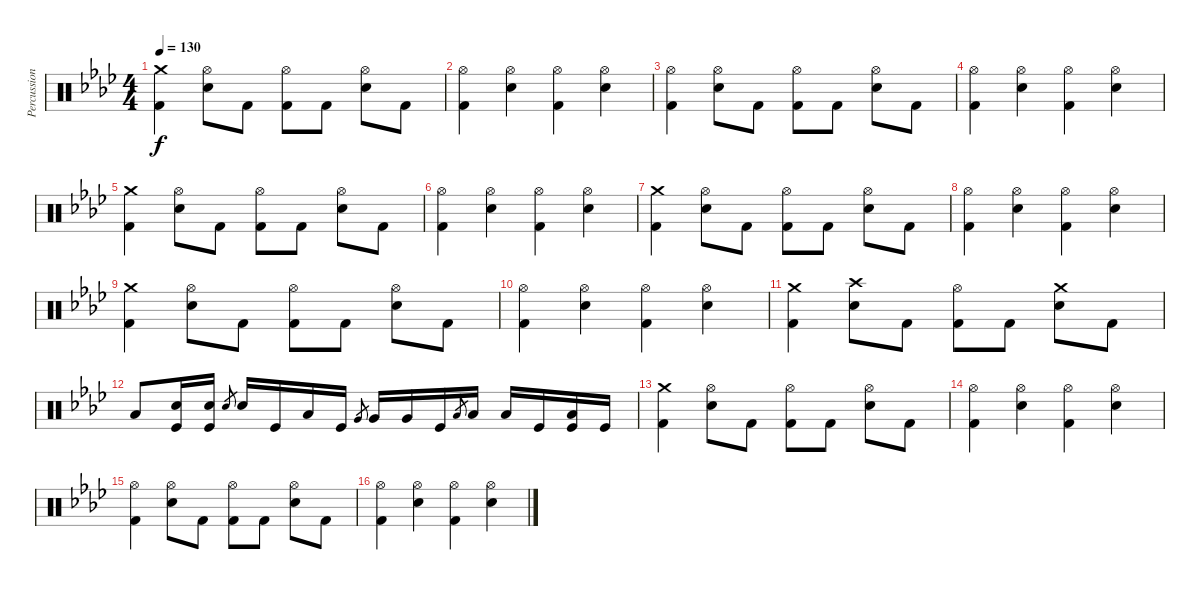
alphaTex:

\track ("Percussions" "Percussion") {instrument percussion}
\staff {score}
\articulation defaults
\ts (4 4)
\tempo 130
\clef neutral
\ks ab
("Crash medium (hit)" "Kick (hit) 2").4{dy f} ("Hi-Hat (open)" "Electric Snare (hit)").8 "Kick (hit) 2".8 ("Hi-Hat (open)" "Kick (hit) 2").8 "Kick (hit) 2".8 ("Hi-Hat (open)" "Electric Snare (hit)").8 "Kick (hit) 2".8 |
("Hi-Hat (open)" "Kick (hit) 2").4 ("Hi-Hat (open)" "Electric Snare (hit)").4 ("Hi-Hat (open)" "Kick (hit) 2").4 ("Hi-Hat (open)" "Electric Snare (hit)").4 |
("Hi-Hat (open)" "Kick (hit) 2").4 ("Hi-Hat (open)" "Electric Snare (hit)").8 "Kick (hit) 2".8 ("Hi-Hat (open)" "Kick (hit) 2").8 "Kick (hit) 2".8 ("Hi-Hat (open)" "Electric Snare (hit)").8 "Kick (hit) 2".8 |
("Hi-Hat (open)" "Kick (hit) 2").4 ("Hi-Hat (open)" "Electric Snare (hit)").4 ("Hi-Hat (open)" "Kick (hit) 2").4 ("Hi-Hat (open)" "Electric Snare (hit)").4 |
("Crash medium (hit)" "Kick (hit) 2").4 ("Hi-Hat (open)" "Electric Snare (hit)").8 "Kick (hit) 2".8 ("Hi-Hat (open)" "Kick (hit) 2").8 "Kick (hit) 2".8 ("Hi-Hat (open)" "Electric Snare (hit)").8 "Kick (hit) 2".8 |
("Hi-Hat (open)" "Kick (hit) 2").4 ("Hi-Hat (open)" "Electric Snare (hit)").4 ("Hi-Hat (open)" "Kick (hit) 2").4 ("Hi-Hat (open)" "Electric Snare (hit)").4 |
("Crash medium (hit)" "Kick (hit) 2").4 ("Hi-Hat (open)" "Electric Snare (hit)").8 "Kick (hit) 2".8 ("Hi-Hat (open)" "Kick (hit) 2").8 "Kick (hit) 2".8 ("Hi-Hat (open)" "Electric Snare (hit)").8 "Kick (hit) 2".8 |
("Hi-Hat (open)" "Kick (hit) 2").4 ("Hi-Hat (open)" "Electric Snare (hit)").4 ("Hi-Hat (open)" "Kick (hit) 2").4 ("Hi-Hat (open)" "Electric Snare (hit)").4 |
("Crash medium (hit)" "Kick (hit) 2").4 ("Hi-Hat (open)" "Electric Snare (hit)").8 "Kick (hit) 2".8 ("Hi-Hat (open)" "Kick (hit) 2").8 "Kick (hit) 2".8 ("Hi-Hat (open)" "Electric Snare (hit)").8 "Kick (hit) 2".8 |
("Hi-Hat (open)" "Kick (hit) 2").4 ("Hi-Hat (open)" "Electric Snare (hit)").4 ("Hi-Hat (open)" "Kick (hit) 2").4 ("Hi-Hat (open)" "Electric Snare (hit)").4 |
("Crash medium (hit)" "Kick (hit) 2").4 ("Crash high (hit)" "Electric Snare (hit)").8 "Kick (hit) 2".8 ("Hi-Hat (open)" "Kick (hit) 2").8 "Kick (hit) 2".8 ("Crash medium (hit)" "Electric Snare (hit)").8 "Kick (hit) 2".8 |
"Low Tom (hit)".8 ("Electric Snare (hit)" "Kick (hit)").16 ("Electric Snare (hit)" "Kick (hit)").16 "Electric Snare (hit)".8{gr} "Electric Snare (hit)".16 "Kick (hit)".16 "Low Tom (hit)".16 "Kick (hit)".16 "Very Low Tom (hit)".8{gr} "Very Low Tom (hit)".16 "Very Low Tom (hit)".16 "Kick (hit)".16 "Low Floor Tom (hit)".8{gr} "Low Floor Tom (hit)".16 "Low Floor Tom (hit)".16 "Kick (hit)".16 ("Low Floor Tom (hit)" "Kick (hit)").16 "Kick (hit)".16 |
("Crash medium (hit)" "Kick (hit) 2").4 ("Hi-Hat (open)" "Electric Snare (hit)").8 "Kick (hit) 2".8 ("Hi-Hat (open)" "Kick (hit) 2").8 "Kick (hit) 2".8 ("Hi-Hat (open)" "Electric Snare (hit)").8 "Kick (hit) 2".8 |
("Hi-Hat (open)" "Kick (hit) 2").4 ("Hi-Hat (open)" "Electric Snare (hit)").4 ("Hi-Hat (open)" "Kick (hit) 2").4 ("Hi-Hat (open)" "Electric Snare (hit)").4 |
("Hi-Hat (open)" "Kick (hit) 2").4 ("Hi-Hat (open)" "Electric Snare (hit)").8 "Kick (hit) 2".8 ("Hi-Hat (open)" "Kick (hit) 2").8 "Kick (hit) 2".8 ("Hi-Hat (open)" "Electric Snare (hit)").8 "Kick (hit) 2".8 |
("Hi-Hat (open)" "Kick (hit) 2").4 ("Hi-Hat (open)" "Electric Snare (hit)").4 ("Hi-Hat (open)" "Kick (hit) 2").4 ("Hi-Hat (open)" "Electric Snare (hit)").4
